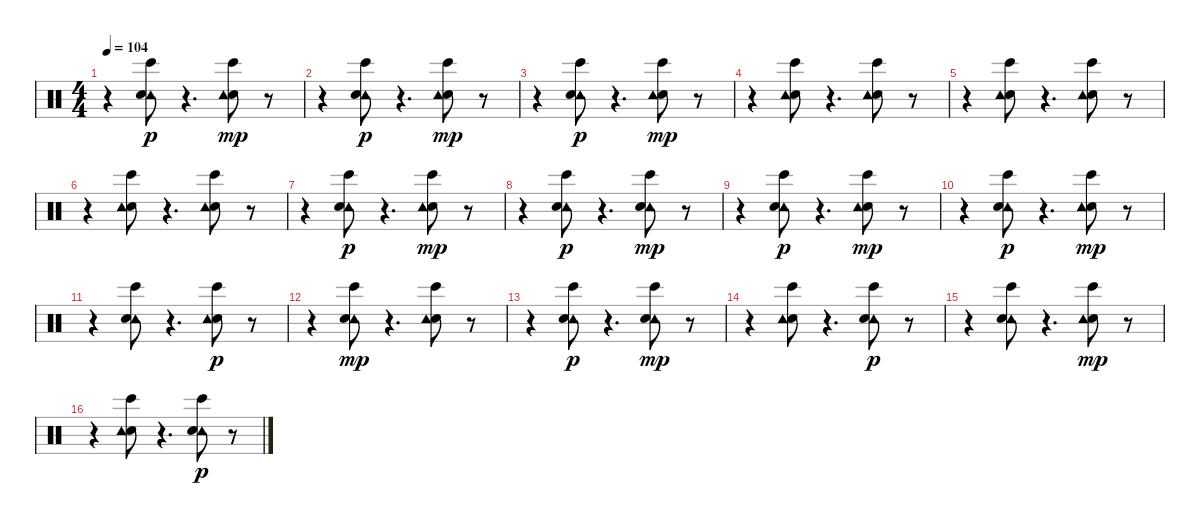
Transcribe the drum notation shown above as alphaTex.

\track "" {instrument percussion}
\staff {score}
\articulation defaults
\ts (4 4)
\tempo 104
\clef neutral
\ks c
r.4{dy mp} ("Bongo High (hit)" "Tambourine (hit)" "Electric Snare (hit)").8{dy p} r.4{d} ("Bongo High (hit)" "Electric Snare (hit)" "Tambourine (hit)").8{dy mp} r.8 |
r.4 ("Tambourine (hit)" "Bongo High (hit)" "Electric Snare (hit)").8{dy p} r.4{d} ("Bongo High (hit)" "Electric Snare (hit)" "Tambourine (hit)").8{dy mp} r.8 |
r.4 ("Bongo High (hit)" "Tambourine (hit)" "Electric Snare (hit)").8{dy p} r.4{d} ("Bongo High (hit)" "Electric Snare (hit)" "Tambourine (hit)").8{dy mp} r.8 |
r.4 ("Electric Snare (hit)" "Bongo High (hit)" "Tambourine (hit)").8 r.4{d} ("Bongo High (hit)" "Electric Snare (hit)" "Tambourine (hit)").8 r.8 |
r.4 ("Electric Snare (hit)" "Tambourine (hit)" "Bongo High (hit)").8 r.4{d} ("Electric Snare (hit)" "Tambourine (hit)" "Bongo High (hit)").8 r.8 |
r.4 ("Electric Snare (hit)" "Tambourine (hit)" "Bongo High (hit)").8 r.4{d} ("Bongo High (hit)" "Electric Snare (hit)" "Tambourine (hit)").8 r.8 |
r.4 ("Tambourine (hit)" "Bongo High (hit)" "Electric Snare (hit)").8{dy p} r.4{d} ("Electric Snare (hit)" "Tambourine (hit)" "Bongo High (hit)").8{dy mp} r.8 |
r.4 ("Tambourine (hit)" "Bongo High (hit)" "Electric Snare (hit)").8{dy p} r.4{d} ("Tambourine (hit)" "Electric Snare (hit)" "Bongo High (hit)").8{dy mp} r.8 |
r.4 ("Tambourine (hit)" "Bongo High (hit)" "Electric Snare (hit)").8{dy p} r.4{d} ("Electric Snare (hit)" "Bongo High (hit)" "Tambourine (hit)").8{dy mp} r.8 |
r.4 ("Bongo High (hit)" "Tambourine (hit)" "Electric Snare (hit)").8{dy p} r.4{d} ("Bongo High (hit)" "Electric Snare (hit)" "Tambourine (hit)").8{dy mp} r.8 |
r.4 ("Tambourine (hit)" "Electric Snare (hit)" "Bongo High (hit)").8 r.4{d} ("Electric Snare (hit)" "Tambourine (hit)" "Bongo High (hit)").8{dy p} r.8 |
r.4 ("Tambourine (hit)" "Electric Snare (hit)" "Bongo High (hit)").8{dy mp} r.4{d} ("Electric Snare (hit)" "Tambourine (hit)" "Bongo High (hit)").8 r.8 |
r.4 ("Bongo High (hit)" "Tambourine (hit)" "Electric Snare (hit)").8{dy p} r.4{d} ("Tambourine (hit)" "Electric Snare (hit)" "Bongo High (hit)").8{dy mp} r.8 |
r.4 ("Electric Snare (hit)" "Bongo High (hit)" "Tambourine (hit)").8 r.4{d} ("Bongo High (hit)" "Tambourine (hit)" "Electric Snare (hit)").8{dy p} r.8 |
r.4 ("Tambourine (hit)" "Bongo High (hit)" "Electric Snare (hit)").8 r.4{d} ("Bongo High (hit)" "Electric Snare (hit)" "Tambourine (hit)").8{dy mp} r.8 |
r.4 ("Electric Snare (hit)" "Tambourine (hit)" "Bongo High (hit)").8 r.4{d} ("Tambourine (hit)" "Bongo High (hit)" "Electric Snare (hit)").8{dy p} r.8
